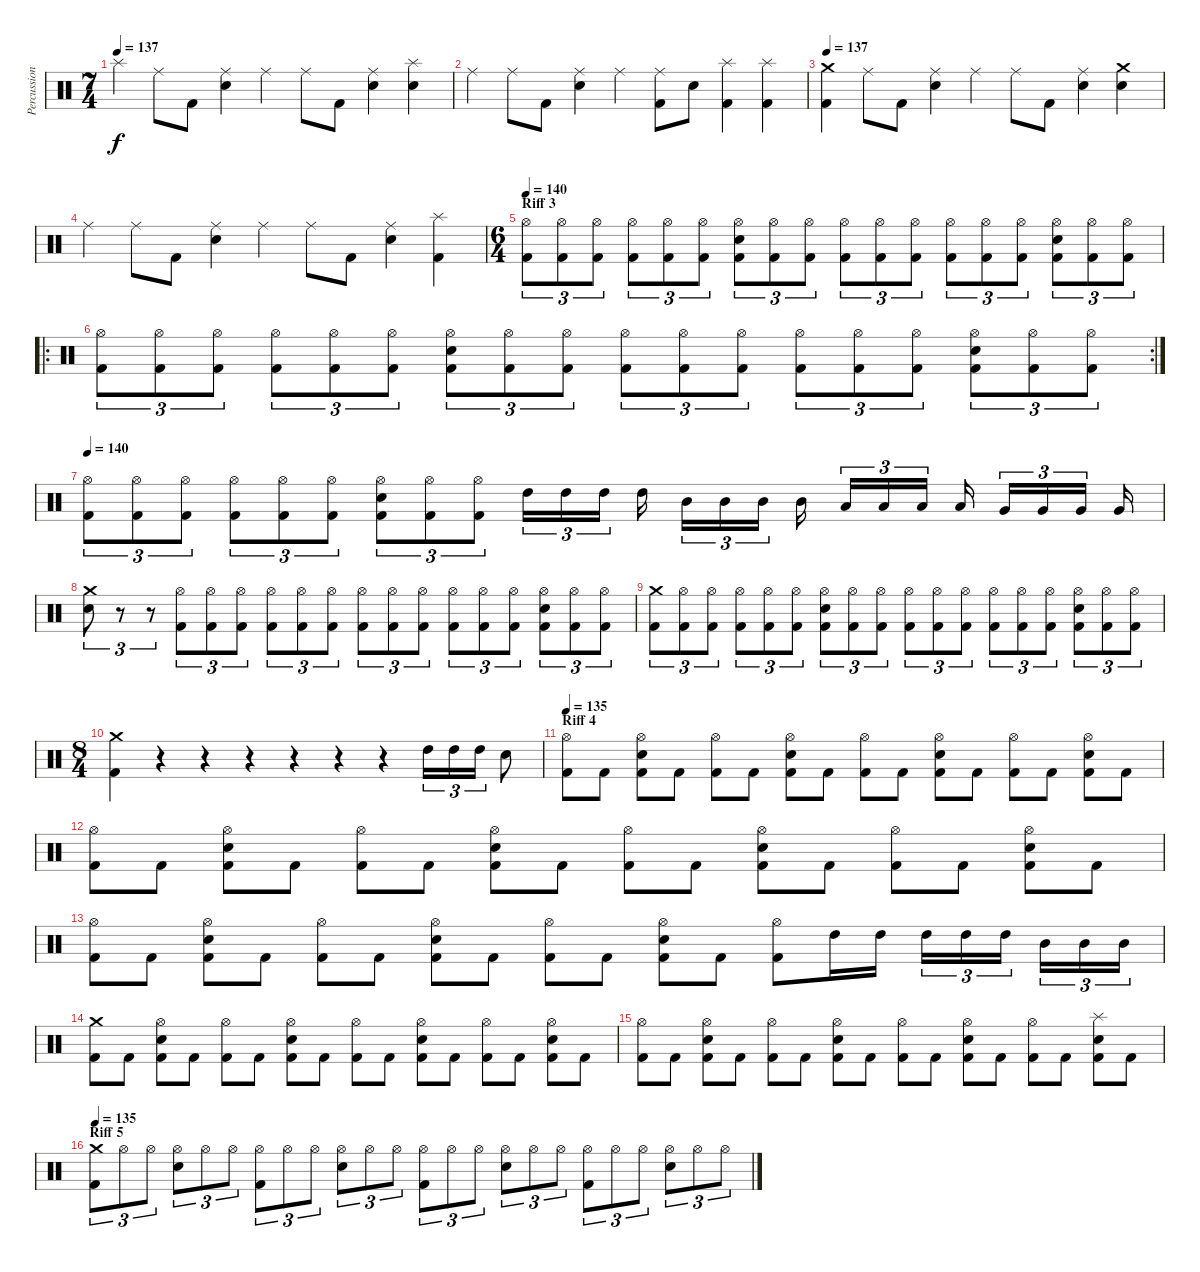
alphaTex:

\track ("Percussion" "Percussion") {instrument percussion}
\staff {score}
\articulation defaults
\ts (7 4)
\tempo 137
\clef neutral
\ks c "Splash (hit)".4{dy f} "Ride (middle)".8 "Kick (hit) 2".8
("Ride (middle)" "Electric Snare (hit)").4 "Ride (middle)".4 "Ride (middle)".8 "Kick (hit) 2".8 ("Ride (middle)" "Electric Snare (hit)").4 ("Splash (hit)" "Electric Snare (hit)").4 |
"Ride (middle)".4 "Ride (middle)".8 "Kick (hit) 2".8 ("Ride (middle)" "Electric Snare (hit)").4 "Ride (middle)".4 ("Ride (middle)" "Kick (hit) 2").8 "Electric Snare (hit)".8 ("Splash (hit)" "Kick (hit) 2").4 ("Splash (hit)" "Kick (hit) 2").4 |
\tempo 137
("Crash medium (hit)" "Kick (hit) 2").4 "Ride (middle)".8 "Kick (hit) 2".8 ("Ride (middle)" "Electric Snare (hit)").4 "Ride (middle)".4 "Ride (middle)".8 "Kick (hit) 2".8 ("Ride (middle)" "Electric Snare (hit)").4 ("Crash medium (hit)" "Electric Snare (hit)").4 |
"Ride (middle)".4 "Ride (middle)".8 "Kick (hit) 2".8 ("Ride (middle)" "Electric Snare (hit)").4 "Ride (middle)".4 "Ride (middle)".8 "Kick (hit) 2".8 ("Ride (middle)" "Electric Snare (hit)").4 ("Splash (hit)" "Kick (hit) 2").4 |
\ts (6 4)
\section ("" "Riff 3")
\tempo 140
("Hi-Hat (open)" "Kick (hit) 2").8{tu (3 2)} ("Hi-Hat (open)" "Kick (hit) 2").8{tu (3 2)} ("Hi-Hat (open)" "Kick (hit) 2").8{tu (3 2)} ("Hi-Hat (open)" "Kick (hit) 2").8{tu (3 2)} ("Hi-Hat (open)" "Kick (hit) 2").8{tu (3 2)} ("Hi-Hat (open)" "Kick (hit) 2").8{tu (3 2)} ("Hi-Hat (open)" "Electric Snare (hit)" "Kick (hit) 2").8{tu (3 2)} ("Hi-Hat (open)" "Kick (hit) 2").8{tu (3 2)} ("Hi-Hat (open)" "Kick (hit) 2").8{tu (3 2)} ("Hi-Hat (open)" "Kick (hit) 2").8{tu (3 2)} ("Hi-Hat (open)" "Kick (hit) 2").8{tu (3 2)} ("Hi-Hat (open)" "Kick (hit) 2").8{tu (3 2)} ("Hi-Hat (open)" "Kick (hit) 2").8{tu (3 2)} ("Hi-Hat (open)" "Kick (hit) 2").8{tu (3 2)} ("Hi-Hat (open)" "Kick (hit) 2").8{tu (3 2)} ("Hi-Hat (open)" "Electric Snare (hit)" "Kick (hit) 2").8{tu (3 2)} ("Hi-Hat (open)" "Kick (hit) 2").8{tu (3 2)} ("Hi-Hat (open)" "Kick (hit) 2").8{tu (3 2)} |
\ro
\rc 2
("Hi-Hat (open)" "Kick (hit) 2").8{tu (3 2)} ("Hi-Hat (open)" "Kick (hit) 2").8{tu (3 2)} ("Hi-Hat (open)" "Kick (hit) 2").8{tu (3 2)} ("Hi-Hat (open)" "Kick (hit) 2").8{tu (3 2)} ("Hi-Hat (open)" "Kick (hit) 2").8{tu (3 2)} ("Hi-Hat (open)" "Kick (hit) 2").8{tu (3 2)} ("Hi-Hat (open)" "Electric Snare (hit)" "Kick (hit) 2").8{tu (3 2)} ("Hi-Hat (open)" "Kick (hit) 2").8{tu (3 2)} ("Hi-Hat (open)" "Kick (hit) 2").8{tu (3 2)} ("Hi-Hat (open)" "Kick (hit) 2").8{tu (3 2)} ("Hi-Hat (open)" "Kick (hit) 2").8{tu (3 2)} ("Hi-Hat (open)" "Kick (hit) 2").8{tu (3 2)} ("Hi-Hat (open)" "Kick (hit) 2").8{tu (3 2)} ("Hi-Hat (open)" "Kick (hit) 2").8{tu (3 2)} ("Hi-Hat (open)" "Kick (hit) 2").8{tu (3 2)} ("Hi-Hat (open)" "Electric Snare (hit)" "Kick (hit) 2").8{tu (3 2)} ("Hi-Hat (open)" "Kick (hit) 2").8{tu (3 2)} ("Hi-Hat (open)" "Kick (hit) 2").8{tu (3 2)} |
\tempo 140
("Hi-Hat (open)" "Kick (hit) 2").8{tu (3 2)} ("Hi-Hat (open)" "Kick (hit) 2").8{tu (3 2)} ("Hi-Hat (open)" "Kick (hit) 2").8{tu (3 2)} ("Hi-Hat (open)" "Kick (hit) 2").8{tu (3 2)} ("Hi-Hat (open)" "Kick (hit) 2").8{tu (3 2)} ("Hi-Hat (open)" "Kick (hit) 2").8{tu (3 2)} ("Hi-Hat (open)" "Electric Snare (hit)" "Kick (hit) 2").8{tu (3 2)} ("Hi-Hat (open)" "Kick (hit) 2").8{tu (3 2)} ("Hi-Hat (open)" "Kick (hit) 2").8{tu (3 2)} "High Tom (hit)".16{tu (3 2)} "High Tom (hit)".16{tu (3 2)} "High Tom (hit)".16{tu (3 2)} "High Tom (hit)".16 "Mid Tom (hit)".16{tu (3 2)} "Mid Tom (hit)".16{tu (3 2)} "Mid Tom (hit)".16{tu (3 2)} "Mid Tom (hit)".16 "Low Tom (hit)".16{tu (3 2)} "Low Tom (hit)".16{tu (3 2)} "Low Tom (hit)".16{tu (3 2)} "Low Tom (hit)".16 "Very Low Tom (hit)".16{tu (3 2)} "Very Low Tom (hit)".16{tu (3 2)} "Very Low Tom (hit)".16{tu (3 2)} "Very Low Tom (hit)".16 |
("Crash medium (hit)" "Electric Snare (hit)").8{tu (3 2)} r.8{tu (3 2)} r.8{tu (3 2)} ("Hi-Hat (open)" "Kick (hit) 2").8{tu (3 2)} ("Hi-Hat (open)" "Kick (hit) 2").8{tu (3 2)} ("Hi-Hat (open)" "Kick (hit) 2").8{tu (3 2)} ("Hi-Hat (open)" "Kick (hit) 2").8{tu (3 2)} ("Hi-Hat (open)" "Kick (hit) 2").8{tu (3 2)} ("Hi-Hat (open)" "Kick (hit) 2").8{tu (3 2)} ("Hi-Hat (open)" "Kick (hit) 2").8{tu (3 2)} ("Hi-Hat (open)" "Kick (hit) 2").8{tu (3 2)} ("Hi-Hat (open)" "Kick (hit) 2").8{tu (3 2)} ("Hi-Hat (open)" "Kick (hit) 2").8{tu (3 2)} ("Hi-Hat (open)" "Kick (hit) 2").8{tu (3 2)} ("Hi-Hat (open)" "Kick (hit) 2").8{tu (3 2)} ("Hi-Hat (open)" "Electric Snare (hit)" "Kick (hit) 2").8{tu (3 2)} ("Hi-Hat (open)" "Kick (hit) 2").8{tu (3 2)} ("Hi-Hat (open)" "Kick (hit) 2").8{tu (3 2)} |
("Crash medium (hit)" "Kick (hit) 2").8{tu (3 2)} ("Hi-Hat (open)" "Kick (hit) 2").8{tu (3 2)} ("Hi-Hat (open)" "Kick (hit) 2").8{tu (3 2)} ("Hi-Hat (open)" "Kick (hit) 2").8{tu (3 2)} ("Hi-Hat (open)" "Kick (hit) 2").8{tu (3 2)} ("Hi-Hat (open)" "Kick (hit) 2").8{tu (3 2)} ("Hi-Hat (open)" "Electric Snare (hit)" "Kick (hit) 2").8{tu (3 2)} ("Hi-Hat (open)" "Kick (hit) 2").8{tu (3 2)} ("Hi-Hat (open)" "Kick (hit) 2").8{tu (3 2)} ("Hi-Hat (open)" "Kick (hit) 2").8{tu (3 2)} ("Hi-Hat (open)" "Kick (hit) 2").8{tu (3 2)} ("Hi-Hat (open)" "Kick (hit) 2").8{tu (3 2)} ("Hi-Hat (open)" "Kick (hit) 2").8{tu (3 2)} ("Hi-Hat (open)" "Kick (hit) 2").8{tu (3 2)} ("Hi-Hat (open)" "Kick (hit) 2").8{tu (3 2)} ("Hi-Hat (open)" "Electric Snare (hit)" "Kick (hit) 2").8{tu (3 2)} ("Hi-Hat (open)" "Kick (hit) 2").8{tu (3 2)} ("Hi-Hat (open)" "Kick (hit) 2").8{tu (3 2)} |
\ts (8 4)
("Crash medium (hit)" "Kick (hit) 2").4 r.4 r.4 r.4 r.4 r.4 r.4 "High Tom (hit)".16{tu (3 2)} "High Tom (hit)".16{tu (3 2)} "High Tom (hit)".16{tu (3 2)} "Electric Snare (hit)".8 |
\section ("" "Riff 4")
\tempo 135
("Hi-Hat (open)" "Kick (hit) 2").8 "Kick (hit) 2".8 ("Hi-Hat (open)" "Electric Snare (hit)" "Kick (hit) 2").8 "Kick (hit) 2".8 ("Hi-Hat (open)" "Kick (hit) 2").8 "Kick (hit) 2".8 ("Hi-Hat (open)" "Electric Snare (hit)" "Kick (hit) 2").8 "Kick (hit) 2".8 ("Hi-Hat (open)" "Kick (hit) 2").8 "Kick (hit) 2".8 ("Hi-Hat (open)" "Electric Snare (hit)" "Kick (hit) 2").8 "Kick (hit) 2".8 ("Hi-Hat (open)" "Kick (hit) 2").8 "Kick (hit) 2".8 ("Hi-Hat (open)" "Electric Snare (hit)" "Kick (hit) 2").8 "Kick (hit) 2".8 |
("Hi-Hat (open)" "Kick (hit) 2").8 "Kick (hit) 2".8 ("Hi-Hat (open)" "Electric Snare (hit)" "Kick (hit) 2").8 "Kick (hit) 2".8 ("Hi-Hat (open)" "Kick (hit) 2").8 "Kick (hit) 2".8 ("Hi-Hat (open)" "Electric Snare (hit)" "Kick (hit) 2").8 "Kick (hit) 2".8 ("Hi-Hat (open)" "Kick (hit) 2").8 "Kick (hit) 2".8 ("Hi-Hat (open)" "Electric Snare (hit)" "Kick (hit) 2").8 "Kick (hit) 2".8 ("Hi-Hat (open)" "Kick (hit) 2").8 "Kick (hit) 2".8 ("Hi-Hat (open)" "Electric Snare (hit)" "Kick (hit) 2").8 "Kick (hit) 2".8 |
("Hi-Hat (open)" "Kick (hit) 2").8 "Kick (hit) 2".8 ("Hi-Hat (open)" "Electric Snare (hit)" "Kick (hit) 2").8 "Kick (hit) 2".8 ("Hi-Hat (open)" "Kick (hit) 2").8 "Kick (hit) 2".8 ("Hi-Hat (open)" "Electric Snare (hit)" "Kick (hit) 2").8 "Kick (hit) 2".8 ("Hi-Hat (open)" "Kick (hit) 2").8 "Kick (hit) 2".8 ("Hi-Hat (open)" "Electric Snare (hit)" "Kick (hit) 2").8 "Kick (hit) 2".8 ("Hi-Hat (open)" "Kick (hit) 2").8 "High Tom (hit)".16 "High Tom (hit)".16 "High Tom (hit)".16{tu (3 2)} "High Tom (hit)".16{tu (3 2)} "High Tom (hit)".16{tu (3 2)} "Mid Tom (hit)".16{tu (3 2)} "Mid Tom (hit)".16{tu (3 2)} "Mid Tom (hit)".16{tu (3 2)} |
("Crash medium (hit)" "Kick (hit) 2").8 "Kick (hit) 2".8 ("Hi-Hat (open)" "Electric Snare (hit)" "Kick (hit) 2").8 "Kick (hit) 2".8 ("Hi-Hat (open)" "Kick (hit) 2").8 "Kick (hit) 2".8 ("Hi-Hat (open)" "Electric Snare (hit)" "Kick (hit) 2").8 "Kick (hit) 2".8 ("Hi-Hat (open)" "Kick (hit) 2").8 "Kick (hit) 2".8 ("Hi-Hat (open)" "Electric Snare (hit)" "Kick (hit) 2").8 "Kick (hit) 2".8 ("Hi-Hat (open)" "Kick (hit) 2").8 "Kick (hit) 2".8 ("Hi-Hat (open)" "Electric Snare (hit)" "Kick (hit) 2").8 "Kick (hit) 2".8 |
("Hi-Hat (open)" "Kick (hit) 2").8 "Kick (hit) 2".8 ("Hi-Hat (open)" "Electric Snare (hit)" "Kick (hit) 2").8 "Kick (hit) 2".8 ("Hi-Hat (open)" "Kick (hit) 2").8 "Kick (hit) 2".8 ("Hi-Hat (open)" "Electric Snare (hit)" "Kick (hit) 2").8 "Kick (hit) 2".8 ("Hi-Hat (open)" "Kick (hit) 2").8 "Kick (hit) 2".8 ("Hi-Hat (open)" "Electric Snare (hit)" "Kick (hit) 2").8 "Kick (hit) 2".8 ("Hi-Hat (open)" "Kick (hit) 2").8 "Kick (hit) 2".8 ("Splash (hit)" "Electric Snare (hit)" "Kick (hit) 2").8 "Kick (hit) 2".8 |
\section ("" "Riff 5")
\tempo 135
("Crash medium (hit)" "Kick (hit) 2").8{tu (3 2)} "Hi-Hat (open)".8{tu (3 2)} "Hi-Hat (open)".8{tu (3 2)} ("Hi-Hat (open)" "Electric Snare (hit)").8{tu (3 2)} "Hi-Hat (open)".8{tu (3 2)} "Hi-Hat (open)".8{tu (3 2)} ("Hi-Hat (open)" "Kick (hit) 2").8{tu (3 2)} "Hi-Hat (open)".8{tu (3 2)} "Hi-Hat (open)".8{tu (3 2)} ("Hi-Hat (open)" "Electric Snare (hit)").8{tu (3 2)} "Hi-Hat (open)".8{tu (3 2)} "Hi-Hat (open)".8{tu (3 2)} ("Hi-Hat (open)" "Kick (hit) 2").8{tu (3 2)} "Hi-Hat (open)".8{tu (3 2)} "Hi-Hat (open)".8{tu (3 2)} ("Hi-Hat (open)" "Electric Snare (hit)").8{tu (3 2)} "Hi-Hat (open)".8{tu (3 2)} "Hi-Hat (open)".8{tu (3 2)} ("Hi-Hat (open)" "Kick (hit) 2").8{tu (3 2)} "Hi-Hat (open)".8{tu (3 2)} "Hi-Hat (open)".8{tu (3 2)} ("Hi-Hat (open)" "Electric Snare (hit)").8{tu (3 2)} "Hi-Hat (open)".8{tu (3 2)} "Hi-Hat (open)".8{tu (3 2)}
